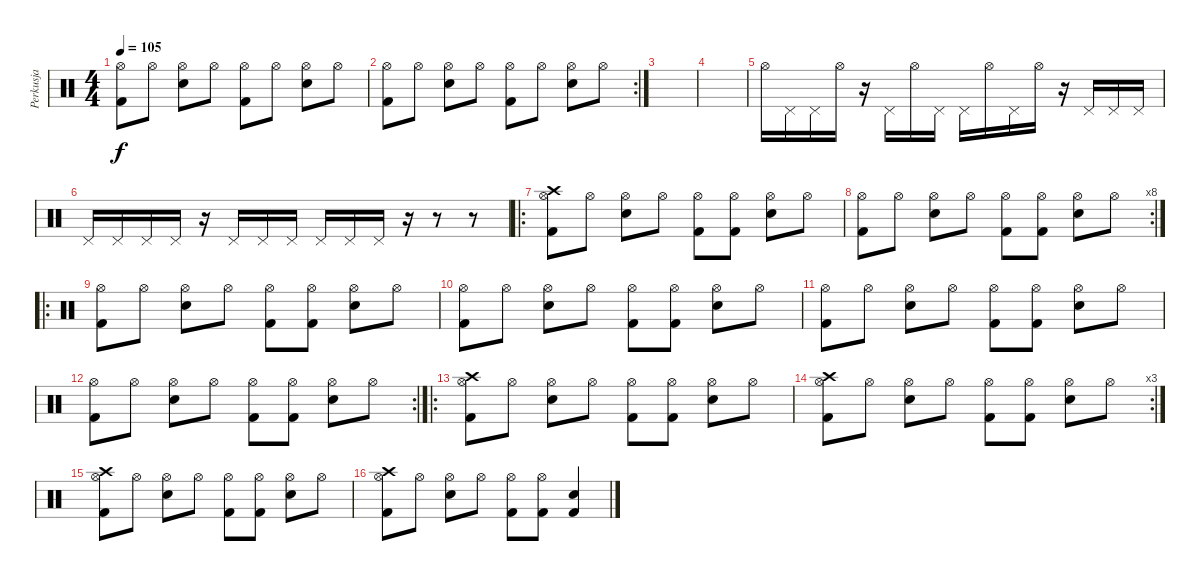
\track ("Perkusja" "Perkusja") {instrument percussion}
\staff {score}
\articulation defaults
\ts (4 4)
\tempo 105
\clef neutral
\ks c
("Kick (hit) 2" "Hi-Hat (open)").8{dy f} "Hi-Hat (open)".8 ("Snare (hit) 2" "Hi-Hat (open)").8 "Hi-Hat (open)".8 ("Kick (hit) 2" "Hi-Hat (open)").8 "Hi-Hat (open)".8 ("Snare (hit) 2" "Hi-Hat (open)").8 "Hi-Hat (open)".8 |
\rc 2
("Kick (hit) 2" "Hi-Hat (open)").8 "Hi-Hat (open)".8 ("Snare (hit) 2" "Hi-Hat (open)").8 "Hi-Hat (open)".8 ("Kick (hit) 2" "Hi-Hat (open)").8 "Hi-Hat (open)".8 ("Snare (hit) 2" "Hi-Hat (open)").8 "Hi-Hat (open)".8 |
|
|
"Hi-Hat (open)".16 "Pedal Hi-Hat (hit)".16 "Pedal Hi-Hat (hit)".16 "Hi-Hat (open)".16 r.16 "Pedal Hi-Hat (hit)".16 "Hi-Hat (open)".16 "Pedal Hi-Hat (hit)".16 "Pedal Hi-Hat (hit)".16 "Hi-Hat (open)".16 "Pedal Hi-Hat (hit)".16 "Hi-Hat (open)".16 r.16 "Pedal Hi-Hat (hit)".16 "Pedal Hi-Hat (hit)".16 "Pedal Hi-Hat (hit)".16 |
"Pedal Hi-Hat (hit)".16 "Pedal Hi-Hat (hit)".16 "Pedal Hi-Hat (hit)".16 "Pedal Hi-Hat (hit)".16 r.16 "Pedal Hi-Hat (hit)".16 "Pedal Hi-Hat (hit)".16 "Pedal Hi-Hat (hit)".16 "Pedal Hi-Hat (hit)".16 "Pedal Hi-Hat (hit)".16 "Pedal Hi-Hat (hit)".16 r.16 r.8 r.8 |
\ro
("Crash high (hit)" "Kick (hit) 2" "Hi-Hat (open)").8 "Hi-Hat (open)".8 ("Snare (hit) 2" "Hi-Hat (open)").8 "Hi-Hat (open)".8 ("Kick (hit) 2" "Hi-Hat (open)").8 ("Kick (hit) 2" "Hi-Hat (open)").8 ("Snare (hit) 2" "Hi-Hat (open)").8 "Hi-Hat (open)".8 |
\rc 8
("Kick (hit) 2" "Hi-Hat (open)").8 "Hi-Hat (open)".8 ("Snare (hit) 2" "Hi-Hat (open)").8 "Hi-Hat (open)".8 ("Kick (hit) 2" "Hi-Hat (open)").8 ("Kick (hit) 2" "Hi-Hat (open)").8 ("Snare (hit) 2" "Hi-Hat (open)").8 "Hi-Hat (open)".8 |
\ro
("Kick (hit) 2" "Hi-Hat (open)").8 "Hi-Hat (open)".8 ("Snare (hit) 2" "Hi-Hat (open)").8 "Hi-Hat (open)".8 ("Kick (hit) 2" "Hi-Hat (open)").8 ("Kick (hit) 2" "Hi-Hat (open)").8 ("Snare (hit) 2" "Hi-Hat (open)").8 "Hi-Hat (open)".8 |
("Kick (hit) 2" "Hi-Hat (open)").8 "Hi-Hat (open)".8 ("Snare (hit) 2" "Hi-Hat (open)").8 "Hi-Hat (open)".8 ("Kick (hit) 2" "Hi-Hat (open)").8 ("Kick (hit) 2" "Hi-Hat (open)").8 ("Snare (hit) 2" "Hi-Hat (open)").8 "Hi-Hat (open)".8 |
("Kick (hit) 2" "Hi-Hat (open)").8 "Hi-Hat (open)".8 ("Snare (hit) 2" "Hi-Hat (open)").8 "Hi-Hat (open)".8 ("Kick (hit) 2" "Hi-Hat (open)").8 ("Kick (hit) 2" "Hi-Hat (open)").8 ("Snare (hit) 2" "Hi-Hat (open)").8 "Hi-Hat (open)".8 |
\rc 2
("Kick (hit) 2" "Hi-Hat (open)").8 "Hi-Hat (open)".8 ("Snare (hit) 2" "Hi-Hat (open)").8 "Hi-Hat (open)".8 ("Kick (hit) 2" "Hi-Hat (open)").8 ("Kick (hit) 2" "Hi-Hat (open)").8 ("Snare (hit) 2" "Hi-Hat (open)").8 "Hi-Hat (open)".8 |
\ro
("Crash high (hit)" "Kick (hit) 2" "Hi-Hat (open)").8 "Hi-Hat (open)".8 ("Snare (hit) 2" "Hi-Hat (open)").8 "Hi-Hat (open)".8 ("Kick (hit) 2" "Hi-Hat (open)").8 ("Kick (hit) 2" "Hi-Hat (open)").8 ("Snare (hit) 2" "Hi-Hat (open)").8 "Hi-Hat (open)".8 |
\rc 3
("Crash high (hit)" "Kick (hit) 2" "Hi-Hat (open)").8 "Hi-Hat (open)".8 ("Snare (hit) 2" "Hi-Hat (open)").8 "Hi-Hat (open)".8 ("Kick (hit) 2" "Hi-Hat (open)").8 ("Kick (hit) 2" "Hi-Hat (open)").8 ("Snare (hit) 2" "Hi-Hat (open)").8 "Hi-Hat (open)".8 |
("Crash high (hit)" "Kick (hit) 2" "Hi-Hat (open)").8 "Hi-Hat (open)".8 ("Snare (hit) 2" "Hi-Hat (open)").8 "Hi-Hat (open)".8 ("Kick (hit) 2" "Hi-Hat (open)").8 ("Kick (hit) 2" "Hi-Hat (open)").8 ("Snare (hit) 2" "Hi-Hat (open)").8 "Hi-Hat (open)".8 |
("Crash high (hit)" "Kick (hit) 2" "Hi-Hat (open)").8 "Hi-Hat (open)".8 ("Snare (hit) 2" "Hi-Hat (open)").8 "Hi-Hat (open)".8 ("Kick (hit) 2" "Hi-Hat (open)").8 ("Kick (hit) 2" "Hi-Hat (open)").8 ("Snare (hit) 2" "Kick (hit) 2").4
